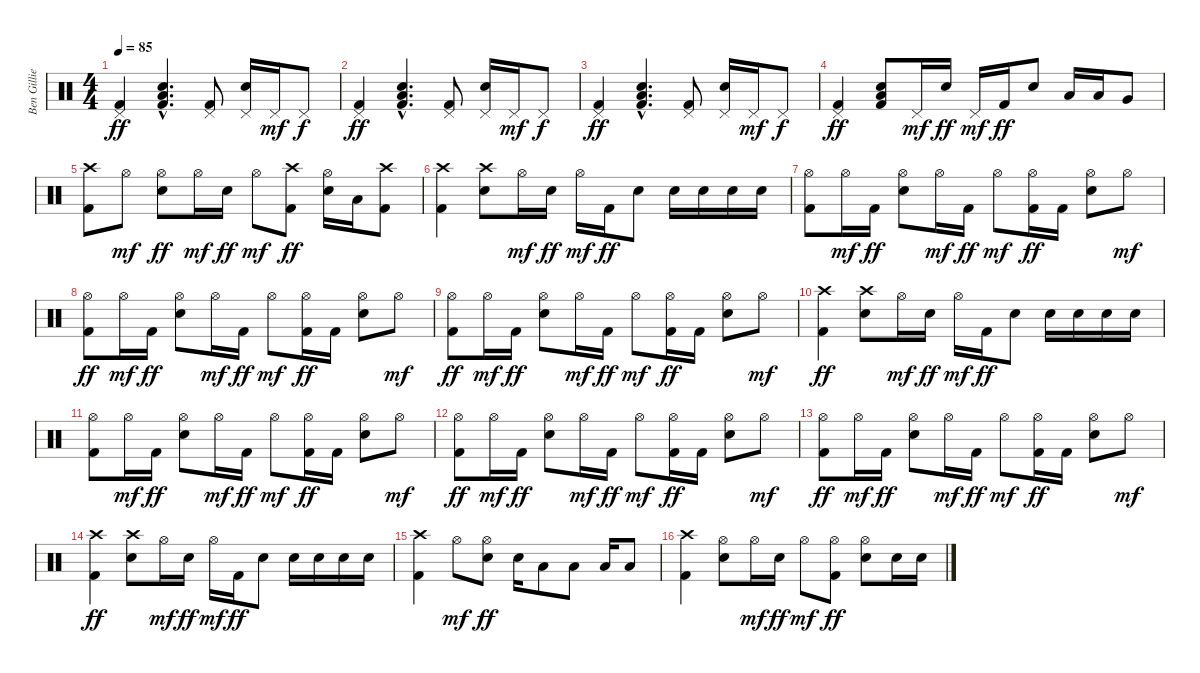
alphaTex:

\track ("Ben Gillies" "Ben Gillie") {instrument percussion}
\staff {score}
\articulation defaults
\ts (4 4)
\tempo 85
\clef neutral
\ks c
("Pedal Hi-Hat (hit)" "Kick (hit) 2").4{dy ff} ("Low Floor Tom (hit)"{hac} "Electric Snare (hit)"{hac} "Kick (hit) 2"{hac}).4{d} ("Pedal Hi-Hat (hit)" "Kick (hit) 2").8 ("Pedal Hi-Hat (hit)" "Electric Snare (hit)").16 "Pedal Hi-Hat (hit)".16{dy mf} "Pedal Hi-Hat (hit)".8{dy f} |
("Pedal Hi-Hat (hit)" "Kick (hit) 2").4{dy ff} ("Low Floor Tom (hit)"{hac} "Electric Snare (hit)"{hac} "Kick (hit) 2"{hac}).4{d} ("Pedal Hi-Hat (hit)" "Kick (hit) 2").8 ("Pedal Hi-Hat (hit)" "Electric Snare (hit)").16 "Pedal Hi-Hat (hit)".16{dy mf} "Pedal Hi-Hat (hit)".8{dy f} |
("Pedal Hi-Hat (hit)" "Kick (hit) 2").4{dy ff} ("Low Floor Tom (hit)"{hac} "Electric Snare (hit)"{hac} "Kick (hit) 2"{hac}).4{d} ("Pedal Hi-Hat (hit)" "Kick (hit) 2").8 ("Pedal Hi-Hat (hit)" "Electric Snare (hit)").16 "Pedal Hi-Hat (hit)".16{dy mf} "Pedal Hi-Hat (hit)".8{dy f} |
("Pedal Hi-Hat (hit)" "Kick (hit) 2").4{dy ff} ("Low Floor Tom (hit)" "Electric Snare (hit)" "Kick (hit) 2").8 "Pedal Hi-Hat (hit)".16{dy mf} "Electric Snare (hit)".16{dy ff} "Pedal Hi-Hat (hit)".16{dy mf} "Kick (hit) 2".16{dy ff} "Electric Snare (hit)".8 "Low Floor Tom (hit)".16 "Low Floor Tom (hit)".16 "Very Low Tom (hit)".8 |
("Crash high (hit)" "Kick (hit) 2").8 "Hi-Hat (open)".8{dy mf} ("Hi-Hat (open)" "Electric Snare (hit)").8{dy ff} "Hi-Hat (open)".16{dy mf} "Electric Snare (hit)".16{dy ff} "Hi-Hat (open)".8{dy mf} ("Crash high (hit)" "Kick (hit) 2").8{dy ff} ("Hi-Hat (open)" "Electric Snare (hit)").16 "Low Floor Tom (hit)".16 ("Crash high (hit)" "Kick (hit) 2").8 |
("Crash high (hit)" "Kick (hit) 2").4 ("Crash high (hit)" "Electric Snare (hit)").8 "Hi-Hat (open)".16{dy mf} "Electric Snare (hit)".16{dy ff} "Hi-Hat (open)".16{dy mf} "Kick (hit) 2".16{dy ff} "Electric Snare (hit)".8 "Electric Snare (hit)".16 "Electric Snare (hit)".16 "Electric Snare (hit)".16 "Electric Snare (hit)".16 |
("Hi-Hat (open)" "Kick (hit) 2").8 "Hi-Hat (open)".16{dy mf} "Kick (hit) 2".16{dy ff} ("Hi-Hat (open)" "Electric Snare (hit)").8 "Hi-Hat (open)".16{dy mf} "Kick (hit) 2".16{dy ff} "Hi-Hat (open)".8{dy mf} ("Hi-Hat (open)" "Kick (hit) 2").16{dy ff} "Kick (hit) 2".16 ("Hi-Hat (open)" "Electric Snare (hit)").8 "Hi-Hat (open)".8{dy mf} |
("Hi-Hat (open)" "Kick (hit) 2").8{dy ff} "Hi-Hat (open)".16{dy mf} "Kick (hit) 2".16{dy ff} ("Hi-Hat (open)" "Electric Snare (hit)").8 "Hi-Hat (open)".16{dy mf} "Kick (hit) 2".16{dy ff} "Hi-Hat (open)".8{dy mf} ("Hi-Hat (open)" "Kick (hit) 2").16{dy ff} "Kick (hit) 2".16 ("Hi-Hat (open)" "Electric Snare (hit)").8 "Hi-Hat (open)".8{dy mf} |
("Hi-Hat (open)" "Kick (hit) 2").8{dy ff} "Hi-Hat (open)".16{dy mf} "Kick (hit) 2".16{dy ff} ("Hi-Hat (open)" "Electric Snare (hit)").8 "Hi-Hat (open)".16{dy mf} "Kick (hit) 2".16{dy ff} "Hi-Hat (open)".8{dy mf} ("Hi-Hat (open)" "Kick (hit) 2").16{dy ff} "Kick (hit) 2".16 ("Hi-Hat (open)" "Electric Snare (hit)").8 "Hi-Hat (open)".8{dy mf} |
("Crash high (hit)" "Kick (hit) 2").4{dy ff} ("Crash high (hit)" "Electric Snare (hit)").8 "Hi-Hat (open)".16{dy mf} "Electric Snare (hit)".16{dy ff} "Hi-Hat (open)".16{dy mf} "Kick (hit) 2".16{dy ff} "Electric Snare (hit)".8 "Electric Snare (hit)".16 "Electric Snare (hit)".16 "Electric Snare (hit)".16 "Electric Snare (hit)".16 |
("Hi-Hat (open)" "Kick (hit) 2").8 "Hi-Hat (open)".16{dy mf} "Kick (hit) 2".16{dy ff} ("Hi-Hat (open)" "Electric Snare (hit)").8 "Hi-Hat (open)".16{dy mf} "Kick (hit) 2".16{dy ff} "Hi-Hat (open)".8{dy mf} ("Hi-Hat (open)" "Kick (hit) 2").16{dy ff} "Kick (hit) 2".16 ("Hi-Hat (open)" "Electric Snare (hit)").8 "Hi-Hat (open)".8{dy mf} |
("Hi-Hat (open)" "Kick (hit) 2").8{dy ff} "Hi-Hat (open)".16{dy mf} "Kick (hit) 2".16{dy ff} ("Hi-Hat (open)" "Electric Snare (hit)").8 "Hi-Hat (open)".16{dy mf} "Kick (hit) 2".16{dy ff} "Hi-Hat (open)".8{dy mf} ("Hi-Hat (open)" "Kick (hit) 2").16{dy ff} "Kick (hit) 2".16 ("Hi-Hat (open)" "Electric Snare (hit)").8 "Hi-Hat (open)".8{dy mf} |
("Hi-Hat (open)" "Kick (hit) 2").8{dy ff} "Hi-Hat (open)".16{dy mf} "Kick (hit) 2".16{dy ff} ("Hi-Hat (open)" "Electric Snare (hit)").8 "Hi-Hat (open)".16{dy mf} "Kick (hit) 2".16{dy ff} "Hi-Hat (open)".8{dy mf} ("Hi-Hat (open)" "Kick (hit) 2").16{dy ff} "Kick (hit) 2".16 ("Hi-Hat (open)" "Electric Snare (hit)").8 "Hi-Hat (open)".8{dy mf} |
("Crash high (hit)" "Kick (hit) 2").4{dy ff} ("Crash high (hit)" "Electric Snare (hit)").8 "Hi-Hat (open)".16{dy mf} "Electric Snare (hit)".16{dy ff} "Hi-Hat (open)".16{dy mf} "Kick (hit) 2".16{dy ff} "Electric Snare (hit)".8 "Electric Snare (hit)".16 "Electric Snare (hit)".16 "Electric Snare (hit)".16 "Electric Snare (hit)".16 |
("Crash high (hit)" "Kick (hit) 2").4 "Hi-Hat (open)".8{dy mf} ("Hi-Hat (open)" "Electric Snare (hit)").8{dy ff} "Electric Snare (hit)".16 "Low Tom (hit)".8 "Low Tom (hit)".8 "Low Floor Tom (hit)".16 "Low Floor Tom (hit)".8 |
("Crash high (hit)" "Kick (hit) 2").4 ("Hi-Hat (open)" "Electric Snare (hit)").8 "Hi-Hat (open)".16{dy mf} "Electric Snare (hit)".16{dy ff} "Hi-Hat (open)".8{dy mf} ("Hi-Hat (open)" "Kick (hit) 2").8{dy ff} ("Hi-Hat (open)" "Electric Snare (hit)").8 "Electric Snare (hit)".16 "Electric Snare (hit)".16
